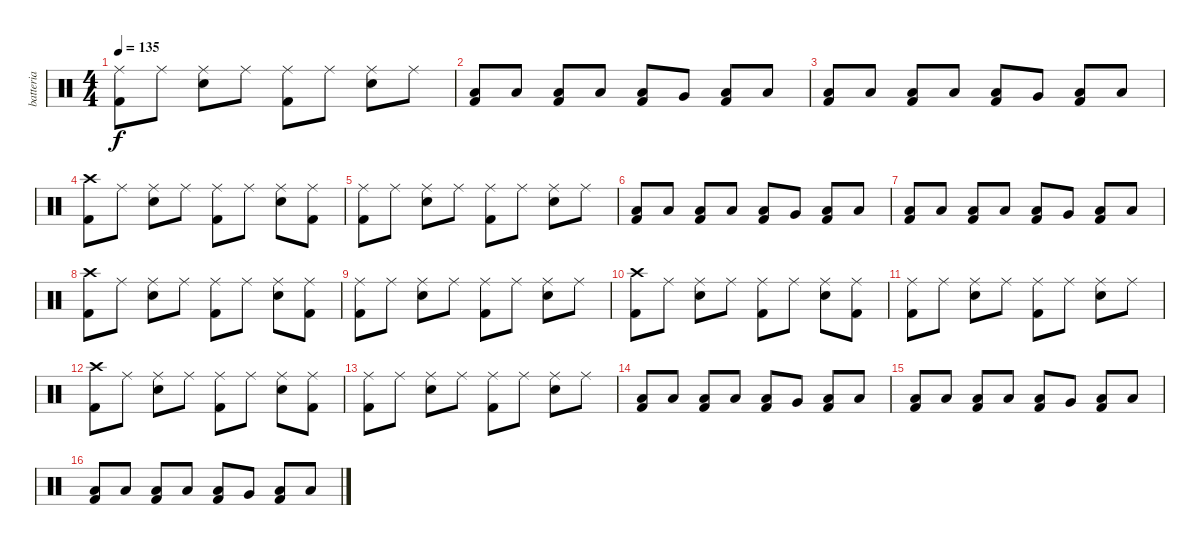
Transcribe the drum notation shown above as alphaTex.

\track ("batteria" "batteria") {instrument percussion}
\staff {score}
\articulation defaults
\ts (4 4)
\tempo 135
\clef neutral
\ks c
("Ride (middle)" "Kick (hit) 2").8{dy f} "Ride (middle)".8 ("Ride (middle)" "Electric Snare (hit)").8 "Ride (middle)".8 ("Ride (middle)" "Kick (hit) 2").8 "Ride (middle)".8 ("Ride (middle)" "Electric Snare (hit)").8 "Ride (middle)".8 |
("Low Floor Tom (hit)" "Kick (hit) 2").8 "Low Floor Tom (hit)".8 ("Low Floor Tom (hit)" "Kick (hit) 2").8 "Low Floor Tom (hit)".8 ("Low Floor Tom (hit)" "Kick (hit) 2").8 "Very Low Tom (hit)".8 ("Low Floor Tom (hit)" "Kick (hit) 2").8 "Low Floor Tom (hit)".8 |
("Low Floor Tom (hit)" "Kick (hit) 2").8 "Low Floor Tom (hit)".8 ("Low Floor Tom (hit)" "Kick (hit) 2").8 "Low Floor Tom (hit)".8 ("Low Floor Tom (hit)" "Kick (hit) 2").8 "Very Low Tom (hit)".8 ("Low Floor Tom (hit)" "Kick (hit) 2").8 "Low Floor Tom (hit)".8 |
("Crash high (hit)" "Kick (hit) 2").8 "Ride (middle)".8 ("Ride (middle)" "Electric Snare (hit)").8 "Ride (middle)".8 ("Ride (middle)" "Kick (hit) 2").8 "Ride (middle)".8 ("Ride (middle)" "Electric Snare (hit)").8 ("Ride (middle)" "Kick (hit) 2").8 |
("Ride (middle)" "Kick (hit) 2").8 "Ride (middle)".8 ("Ride (middle)" "Electric Snare (hit)").8 "Ride (middle)".8 ("Ride (middle)" "Kick (hit) 2").8 "Ride (middle)".8 ("Ride (middle)" "Electric Snare (hit)").8 "Ride (middle)".8 |
("Low Floor Tom (hit)" "Kick (hit) 2").8 "Low Floor Tom (hit)".8 ("Low Floor Tom (hit)" "Kick (hit) 2").8 "Low Floor Tom (hit)".8 ("Low Floor Tom (hit)" "Kick (hit) 2").8 "Very Low Tom (hit)".8 ("Low Floor Tom (hit)" "Kick (hit) 2").8 "Low Floor Tom (hit)".8 |
("Low Floor Tom (hit)" "Kick (hit) 2").8 "Low Floor Tom (hit)".8 ("Low Floor Tom (hit)" "Kick (hit) 2").8 "Low Floor Tom (hit)".8 ("Low Floor Tom (hit)" "Kick (hit) 2").8 "Very Low Tom (hit)".8 ("Low Floor Tom (hit)" "Kick (hit) 2").8 "Low Floor Tom (hit)".8 |
("Crash high (hit)" "Kick (hit) 2").8 "Ride (middle)".8 ("Ride (middle)" "Electric Snare (hit)").8 "Ride (middle)".8 ("Ride (middle)" "Kick (hit) 2").8 "Ride (middle)".8 ("Ride (middle)" "Electric Snare (hit)").8 ("Ride (middle)" "Kick (hit) 2").8 |
("Ride (middle)" "Kick (hit) 2").8 "Ride (middle)".8 ("Ride (middle)" "Electric Snare (hit)").8 "Ride (middle)".8 ("Ride (middle)" "Kick (hit) 2").8 "Ride (middle)".8 ("Ride (middle)" "Electric Snare (hit)").8 "Ride (middle)".8 |
("Crash high (hit)" "Kick (hit) 2").8 "Ride (middle)".8 ("Ride (middle)" "Electric Snare (hit)").8 "Ride (middle)".8 ("Ride (middle)" "Kick (hit) 2").8 "Ride (middle)".8 ("Ride (middle)" "Electric Snare (hit)").8 ("Ride (middle)" "Kick (hit) 2").8 |
("Ride (middle)" "Kick (hit) 2").8 "Ride (middle)".8 ("Ride (middle)" "Electric Snare (hit)").8 "Ride (middle)".8 ("Ride (middle)" "Kick (hit) 2").8 "Ride (middle)".8 ("Ride (middle)" "Electric Snare (hit)").8 "Ride (middle)".8 |
("Crash high (hit)" "Kick (hit) 2").8 "Ride (middle)".8 ("Ride (middle)" "Electric Snare (hit)").8 "Ride (middle)".8 ("Ride (middle)" "Kick (hit) 2").8 "Ride (middle)".8 ("Ride (middle)" "Electric Snare (hit)").8 ("Ride (middle)" "Kick (hit) 2").8 |
("Ride (middle)" "Kick (hit) 2").8 "Ride (middle)".8 ("Ride (middle)" "Electric Snare (hit)").8 "Ride (middle)".8 ("Ride (middle)" "Kick (hit) 2").8 "Ride (middle)".8 ("Ride (middle)" "Electric Snare (hit)").8 "Ride (middle)".8 |
("Low Floor Tom (hit)" "Kick (hit) 2").8 "Low Floor Tom (hit)".8 ("Low Floor Tom (hit)" "Kick (hit) 2").8 "Low Floor Tom (hit)".8 ("Low Floor Tom (hit)" "Kick (hit) 2").8 "Very Low Tom (hit)".8 ("Low Floor Tom (hit)" "Kick (hit) 2").8 "Low Floor Tom (hit)".8 |
("Low Floor Tom (hit)" "Kick (hit) 2").8 "Low Floor Tom (hit)".8 ("Low Floor Tom (hit)" "Kick (hit) 2").8 "Low Floor Tom (hit)".8 ("Low Floor Tom (hit)" "Kick (hit) 2").8 "Very Low Tom (hit)".8 ("Low Floor Tom (hit)" "Kick (hit) 2").8 "Low Floor Tom (hit)".8 |
("Low Floor Tom (hit)" "Kick (hit) 2").8 "Low Floor Tom (hit)".8 ("Low Floor Tom (hit)" "Kick (hit) 2").8 "Low Floor Tom (hit)".8 ("Low Floor Tom (hit)" "Kick (hit) 2").8 "Very Low Tom (hit)".8 ("Low Floor Tom (hit)" "Kick (hit) 2").8 "Low Floor Tom (hit)".8
